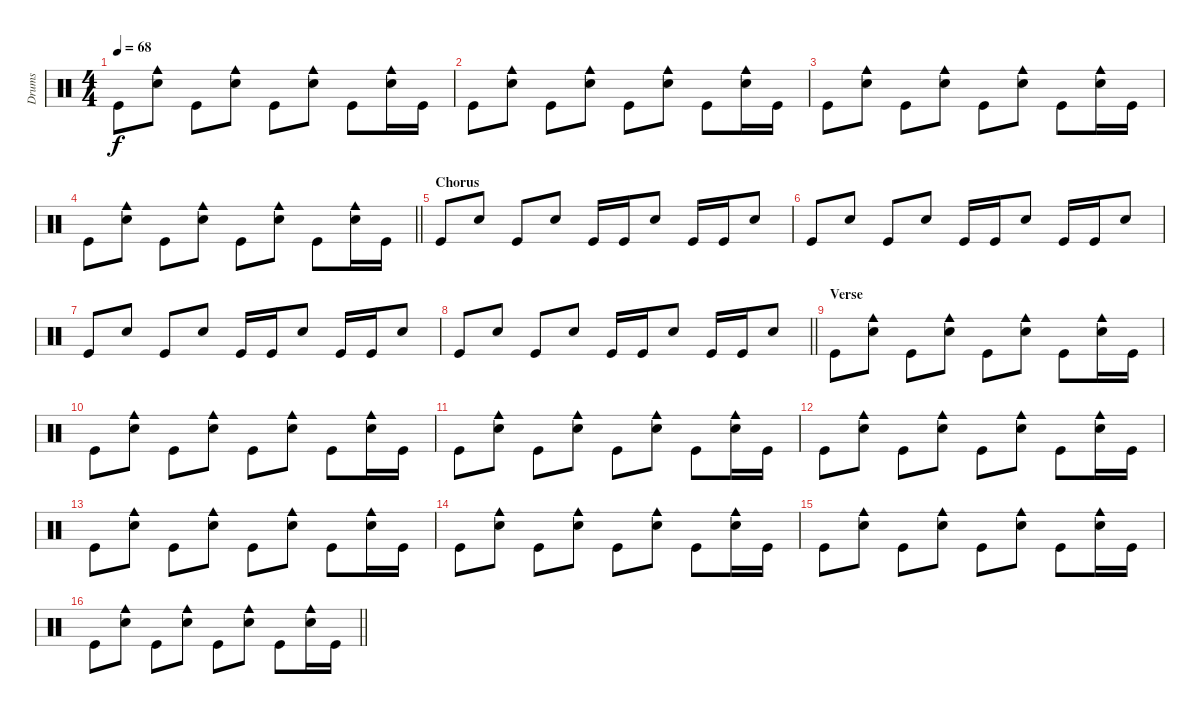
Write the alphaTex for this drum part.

\track ("Drums" "Drums") {instrument percussion}
\staff {score}
\articulation defaults
\ts (4 4)
\tempo 68
\clef neutral
\ks c "Kick (hit)".8{dy f}
("Cowbell medium (hit)" "Electric Snare (hit)").8 "Kick (hit)".8 ("Cowbell medium (hit)" "Electric Snare (hit)").8 "Kick (hit)".8 ("Cowbell medium (hit)" "Electric Snare (hit)").8 "Kick (hit)".8 ("Cowbell medium (hit)" "Electric Snare (hit)").16 "Kick (hit)".16 |
"Kick (hit)".8 ("Cowbell medium (hit)" "Electric Snare (hit)").8 "Kick (hit)".8 ("Cowbell medium (hit)" "Electric Snare (hit)").8 "Kick (hit)".8 ("Cowbell medium (hit)" "Electric Snare (hit)").8 "Kick (hit)".8 ("Cowbell medium (hit)" "Electric Snare (hit)").16 "Kick (hit)".16 |
"Kick (hit)".8 ("Cowbell medium (hit)" "Electric Snare (hit)").8 "Kick (hit)".8 ("Cowbell medium (hit)" "Electric Snare (hit)").8 "Kick (hit)".8 ("Cowbell medium (hit)" "Electric Snare (hit)").8 "Kick (hit)".8 ("Cowbell medium (hit)" "Electric Snare (hit)").16 "Kick (hit)".16 |
\barLineRight lightlight "Kick (hit)".8
("Cowbell medium (hit)" "Electric Snare (hit)").8 "Kick (hit)".8 ("Cowbell medium (hit)" "Electric Snare (hit)").8 "Kick (hit)".8 ("Cowbell medium (hit)" "Electric Snare (hit)").8 "Kick (hit)".8 ("Cowbell medium (hit)" "Electric Snare (hit)").16 "Kick (hit)".16 |
\section ("" "Chorus")
"Kick (hit)".8 "Snare (hit) 2".8 "Kick (hit)".8 "Snare (hit) 2".8 "Kick (hit)".16 "Kick (hit)".16 "Snare (hit) 2".8 "Kick (hit)".16 "Kick (hit)".16 "Snare (hit) 2".8 |
"Kick (hit)".8 "Snare (hit) 2".8 "Kick (hit)".8 "Snare (hit) 2".8 "Kick (hit)".16 "Kick (hit)".16 "Snare (hit) 2".8 "Kick (hit)".16 "Kick (hit)".16 "Snare (hit) 2".8 |
"Kick (hit)".8 "Snare (hit) 2".8 "Kick (hit)".8 "Snare (hit) 2".8 "Kick (hit)".16 "Kick (hit)".16 "Snare (hit) 2".8 "Kick (hit)".16 "Kick (hit)".16 "Snare (hit) 2".8 |
\barLineRight lightlight "Kick (hit)".8 "Snare (hit) 2".8 "Kick (hit)".8 "Snare (hit) 2".8 "Kick (hit)".16 "Kick (hit)".16 "Snare (hit) 2".8 "Kick (hit)".16 "Kick (hit)".16 "Snare (hit) 2".8
|
\section ("" "Verse")
"Kick (hit)".8 ("Cowbell medium (hit)" "Electric Snare (hit)").8 "Kick (hit)".8 ("Cowbell medium (hit)" "Electric Snare (hit)").8 "Kick (hit)".8 ("Cowbell medium (hit)" "Electric Snare (hit)").8 "Kick (hit)".8 ("Cowbell medium (hit)" "Electric Snare (hit)").16 "Kick (hit)".16 |
"Kick (hit)".8 ("Cowbell medium (hit)" "Electric Snare (hit)").8 "Kick (hit)".8 ("Cowbell medium (hit)" "Electric Snare (hit)").8 "Kick (hit)".8 ("Cowbell medium (hit)" "Electric Snare (hit)").8 "Kick (hit)".8 ("Cowbell medium (hit)" "Electric Snare (hit)").16 "Kick (hit)".16 |
"Kick (hit)".8 ("Cowbell medium (hit)" "Electric Snare (hit)").8 "Kick (hit)".8 ("Cowbell medium (hit)" "Electric Snare (hit)").8 "Kick (hit)".8 ("Cowbell medium (hit)" "Electric Snare (hit)").8 "Kick (hit)".8 ("Cowbell medium (hit)" "Electric Snare (hit)").16 "Kick (hit)".16 |
"Kick (hit)".8 ("Cowbell medium (hit)" "Electric Snare (hit)").8 "Kick (hit)".8 ("Cowbell medium (hit)" "Electric Snare (hit)").8 "Kick (hit)".8 ("Cowbell medium (hit)" "Electric Snare (hit)").8 "Kick (hit)".8 ("Cowbell medium (hit)" "Electric Snare (hit)").16 "Kick (hit)".16 |
"Kick (hit)".8 ("Cowbell medium (hit)" "Electric Snare (hit)").8 "Kick (hit)".8 ("Cowbell medium (hit)" "Electric Snare (hit)").8 "Kick (hit)".8 ("Cowbell medium (hit)" "Electric Snare (hit)").8 "Kick (hit)".8 ("Cowbell medium (hit)" "Electric Snare (hit)").16 "Kick (hit)".16 |
"Kick (hit)".8 ("Cowbell medium (hit)" "Electric Snare (hit)").8 "Kick (hit)".8 ("Cowbell medium (hit)" "Electric Snare (hit)").8 "Kick (hit)".8 ("Cowbell medium (hit)" "Electric Snare (hit)").8 "Kick (hit)".8 ("Cowbell medium (hit)" "Electric Snare (hit)").16 "Kick (hit)".16 |
"Kick (hit)".8 ("Cowbell medium (hit)" "Electric Snare (hit)").8 "Kick (hit)".8 ("Cowbell medium (hit)" "Electric Snare (hit)").8 "Kick (hit)".8 ("Cowbell medium (hit)" "Electric Snare (hit)").8 "Kick (hit)".8 ("Cowbell medium (hit)" "Electric Snare (hit)").16 "Kick (hit)".16 |
\barLineRight lightlight "Kick (hit)".8
("Cowbell medium (hit)" "Electric Snare (hit)").8 "Kick (hit)".8 ("Cowbell medium (hit)" "Electric Snare (hit)").8 "Kick (hit)".8 ("Cowbell medium (hit)" "Electric Snare (hit)").8 "Kick (hit)".8 ("Cowbell medium (hit)" "Electric Snare (hit)").16 "Kick (hit)".16
